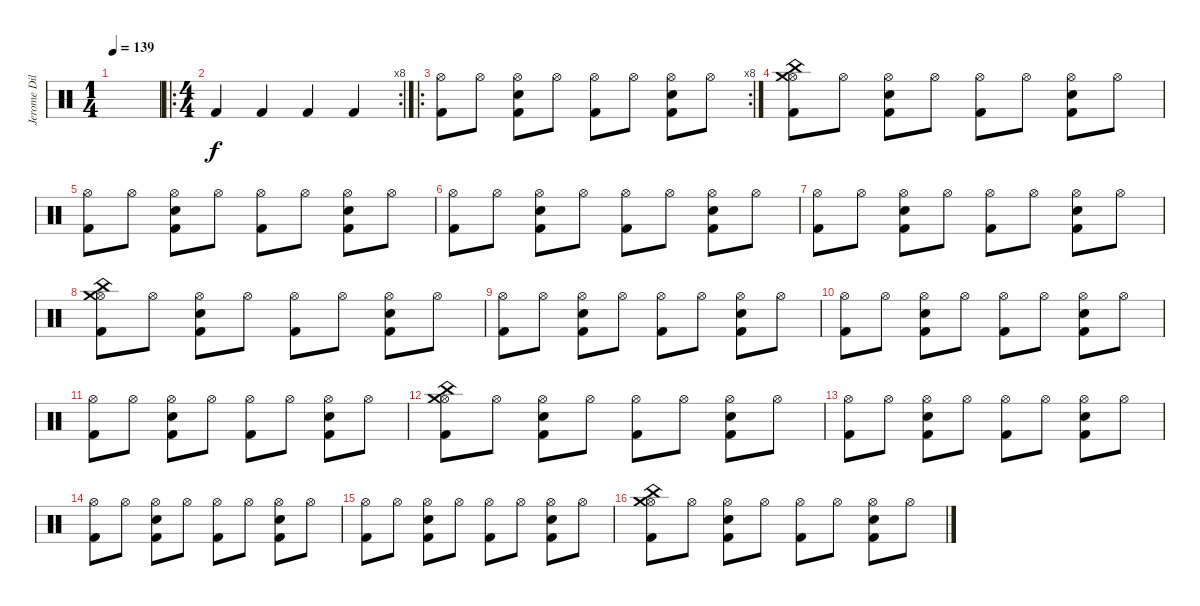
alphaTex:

\track ("Jerome Dillon - Batería" "Jerome Dil") {instrument percussion}
\staff {score}
\articulation defaults
\ts (1 4)
\tempo 139
\clef neutral
\ks c
|
\ro
\rc 8
\ts (4 4)
"Kick (hit) 2".4 "Kick (hit) 2".4 "Kick (hit) 2".4 "Kick (hit) 2".4 |
\ro
\rc 8
("Hi-Hat (open)" "Kick (hit) 2").8 "Hi-Hat (open)".8 ("Hi-Hat (open)" "Kick (hit) 2" "Electric Snare (hit)").8 "Hi-Hat (open)".8 ("Hi-Hat (open)" "Kick (hit) 2").8 "Hi-Hat (open)".8 ("Hi-Hat (open)" "Electric Snare (hit)" "Kick (hit) 2").8 "Hi-Hat (open)".8 |
("Hi-Hat (open)" "Kick (hit) 2" "China (hit)" "Crash medium (hit)").8 "Hi-Hat (open)".8 ("Hi-Hat (open)" "Kick (hit) 2" "Electric Snare (hit)").8 "Hi-Hat (open)".8 ("Hi-Hat (open)" "Kick (hit) 2").8 "Hi-Hat (open)".8 ("Hi-Hat (open)" "Electric Snare (hit)" "Kick (hit) 2").8 "Hi-Hat (open)".8 |
("Hi-Hat (open)" "Kick (hit) 2").8 "Hi-Hat (open)".8 ("Hi-Hat (open)" "Kick (hit) 2" "Electric Snare (hit)").8 "Hi-Hat (open)".8 ("Hi-Hat (open)" "Kick (hit) 2").8 "Hi-Hat (open)".8 ("Hi-Hat (open)" "Electric Snare (hit)" "Kick (hit) 2").8 "Hi-Hat (open)".8 |
("Hi-Hat (open)" "Kick (hit) 2").8 "Hi-Hat (open)".8 ("Hi-Hat (open)" "Kick (hit) 2" "Electric Snare (hit)").8 "Hi-Hat (open)".8 ("Hi-Hat (open)" "Kick (hit) 2").8 "Hi-Hat (open)".8 ("Hi-Hat (open)" "Electric Snare (hit)" "Kick (hit) 2").8 "Hi-Hat (open)".8 |
("Hi-Hat (open)" "Kick (hit) 2").8 "Hi-Hat (open)".8 ("Hi-Hat (open)" "Kick (hit) 2" "Electric Snare (hit)").8 "Hi-Hat (open)".8 ("Hi-Hat (open)" "Kick (hit) 2").8 "Hi-Hat (open)".8 ("Hi-Hat (open)" "Electric Snare (hit)" "Kick (hit) 2").8 "Hi-Hat (open)".8 |
("Hi-Hat (open)" "Kick (hit) 2" "Crash medium (hit)" "China (hit)").8 "Hi-Hat (open)".8 ("Hi-Hat (open)" "Kick (hit) 2" "Electric Snare (hit)").8 "Hi-Hat (open)".8 ("Hi-Hat (open)" "Kick (hit) 2").8 "Hi-Hat (open)".8 ("Hi-Hat (open)" "Electric Snare (hit)" "Kick (hit) 2").8 "Hi-Hat (open)".8 |
("Hi-Hat (open)" "Kick (hit) 2").8 "Hi-Hat (open)".8 ("Hi-Hat (open)" "Kick (hit) 2" "Electric Snare (hit)").8 "Hi-Hat (open)".8 ("Hi-Hat (open)" "Kick (hit) 2").8 "Hi-Hat (open)".8 ("Hi-Hat (open)" "Electric Snare (hit)" "Kick (hit) 2").8 "Hi-Hat (open)".8 |
("Hi-Hat (open)" "Kick (hit) 2").8 "Hi-Hat (open)".8 ("Hi-Hat (open)" "Kick (hit) 2" "Electric Snare (hit)").8 "Hi-Hat (open)".8 ("Hi-Hat (open)" "Kick (hit) 2").8 "Hi-Hat (open)".8 ("Hi-Hat (open)" "Electric Snare (hit)" "Kick (hit) 2").8 "Hi-Hat (open)".8 |
("Hi-Hat (open)" "Kick (hit) 2").8 "Hi-Hat (open)".8 ("Hi-Hat (open)" "Kick (hit) 2" "Electric Snare (hit)").8 "Hi-Hat (open)".8 ("Hi-Hat (open)" "Kick (hit) 2").8 "Hi-Hat (open)".8 ("Hi-Hat (open)" "Electric Snare (hit)" "Kick (hit) 2").8 "Hi-Hat (open)".8 |
("Hi-Hat (open)" "Kick (hit) 2" "China (hit)" "Crash medium (hit)").8 "Hi-Hat (open)".8 ("Hi-Hat (open)" "Kick (hit) 2" "Electric Snare (hit)").8 "Hi-Hat (open)".8 ("Hi-Hat (open)" "Kick (hit) 2").8 "Hi-Hat (open)".8 ("Hi-Hat (open)" "Electric Snare (hit)" "Kick (hit) 2").8 "Hi-Hat (open)".8 |
("Hi-Hat (open)" "Kick (hit) 2").8 "Hi-Hat (open)".8 ("Hi-Hat (open)" "Kick (hit) 2" "Electric Snare (hit)").8 "Hi-Hat (open)".8 ("Hi-Hat (open)" "Kick (hit) 2").8 "Hi-Hat (open)".8 ("Hi-Hat (open)" "Electric Snare (hit)" "Kick (hit) 2").8 "Hi-Hat (open)".8 |
("Hi-Hat (open)" "Kick (hit) 2").8 "Hi-Hat (open)".8 ("Hi-Hat (open)" "Kick (hit) 2" "Electric Snare (hit)").8 "Hi-Hat (open)".8 ("Hi-Hat (open)" "Kick (hit) 2").8 "Hi-Hat (open)".8 ("Hi-Hat (open)" "Electric Snare (hit)" "Kick (hit) 2").8 "Hi-Hat (open)".8 |
("Hi-Hat (open)" "Kick (hit) 2").8 "Hi-Hat (open)".8 ("Hi-Hat (open)" "Kick (hit) 2" "Electric Snare (hit)").8 "Hi-Hat (open)".8 ("Hi-Hat (open)" "Kick (hit) 2").8 "Hi-Hat (open)".8 ("Hi-Hat (open)" "Electric Snare (hit)" "Kick (hit) 2").8 "Hi-Hat (open)".8 |
("Hi-Hat (open)" "Kick (hit) 2" "China (hit)" "Crash medium (hit)").8 "Hi-Hat (open)".8 ("Hi-Hat (open)" "Kick (hit) 2" "Electric Snare (hit)").8 "Hi-Hat (open)".8 ("Hi-Hat (open)" "Kick (hit) 2").8 "Hi-Hat (open)".8 ("Hi-Hat (open)" "Electric Snare (hit)" "Kick (hit) 2").8 "Hi-Hat (open)".8
